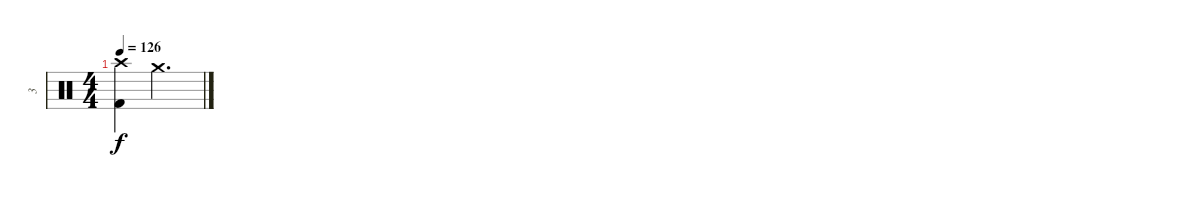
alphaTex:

\track ("3" "3") {instrument percussion}
\staff {score}
\articulation defaults
\ts (4 4)
\tempo 126
\clef neutral
\ks c
("Crash high (hit)" "Kick (hit) 2").4{dy f} "Crash medium (hit)".2{d}
